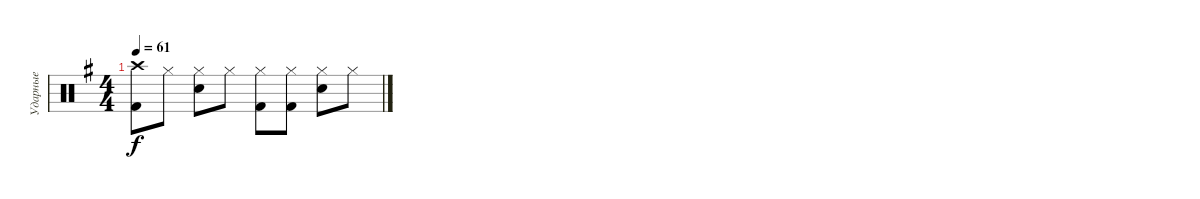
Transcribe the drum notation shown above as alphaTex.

\track ("Ударные" "Ударные") {instrument percussion}
\staff {score}
\articulation defaults
\ts (4 4)
\tempo 61
\clef neutral
\ks g
("Crash high (hit)" "Kick (hit) 2").8{dy f} "Hi-Hat (closed)".8 ("Hi-Hat (closed)" "Electric Snare (hit)").8 "Hi-Hat (closed)".8 ("Hi-Hat (closed)" "Kick (hit) 2").8 ("Hi-Hat (closed)" "Kick (hit) 2").8 ("Hi-Hat (closed)" "Electric Snare (hit)").8 "Hi-Hat (closed)".8
